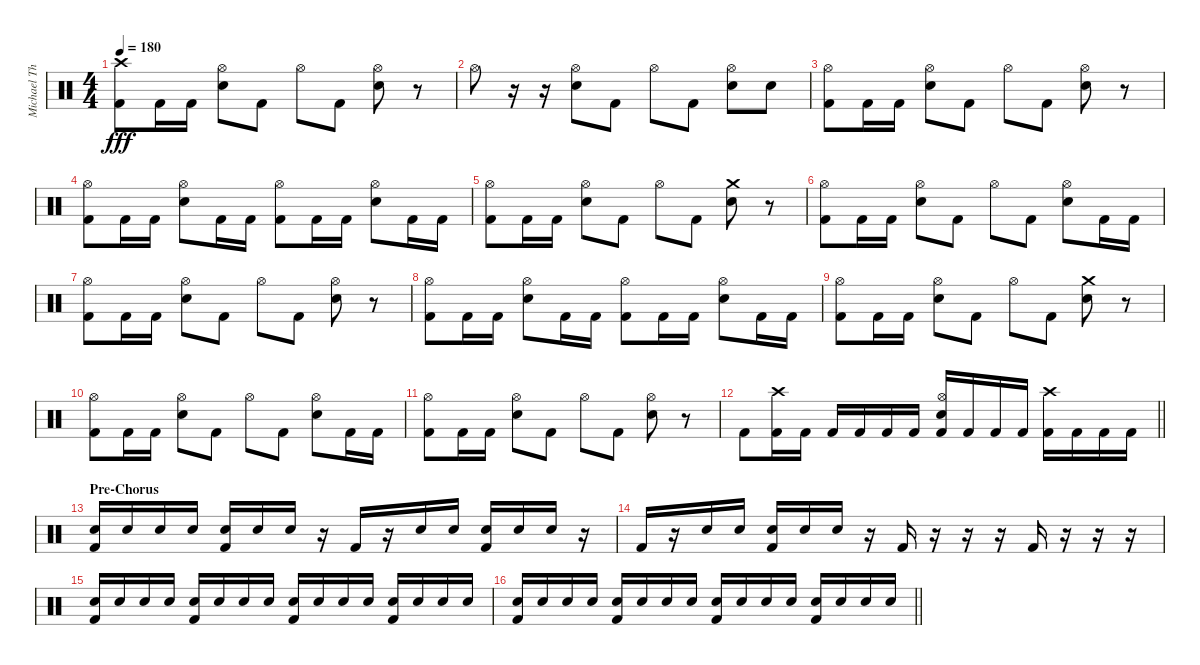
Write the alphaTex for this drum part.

\track ("Michael Thomas" "Michael Th") {instrument percussion}
\staff {score}
\articulation defaults
\ts (4 4)
\tempo 180
\clef neutral
\ks c
("Crash high (hit)" "Kick (hit) 2").8{dy fff} "Kick (hit) 2".16 "Kick (hit) 2".16 ("Hi-Hat (open)" "Electric Snare (hit)").8 "Kick (hit) 2".8 "Hi-Hat (open)".8 "Kick (hit) 2".8 ("Hi-Hat (open)" "Electric Snare (hit)").8 r.8 |
"Hi-Hat (open)".8 r.16 r.16 ("Hi-Hat (open)" "Electric Snare (hit)").8 "Kick (hit) 2".8 "Hi-Hat (open)".8 "Kick (hit) 2".8 ("Hi-Hat (open)" "Electric Snare (hit)").8 "Electric Snare (hit)".8 |
("Hi-Hat (open)" "Kick (hit) 2").8 "Kick (hit) 2".16 "Kick (hit) 2".16 ("Hi-Hat (open)" "Electric Snare (hit)").8 "Kick (hit) 2".8 "Hi-Hat (open)".8 "Kick (hit) 2".8 ("Hi-Hat (open)" "Electric Snare (hit)").8 r.8 |
("Hi-Hat (open)" "Kick (hit) 2").8 "Kick (hit) 2".16 "Kick (hit) 2".16 ("Hi-Hat (open)" "Electric Snare (hit)").8 "Kick (hit) 2".16 "Kick (hit) 2".16 ("Hi-Hat (open)" "Kick (hit) 2").8 "Kick (hit) 2".16 "Kick (hit) 2".16 ("Hi-Hat (open)" "Electric Snare (hit)").8 "Kick (hit) 2".16 "Kick (hit) 2".16 |
("Hi-Hat (open)" "Kick (hit) 2").8 "Kick (hit) 2".16 "Kick (hit) 2".16 ("Hi-Hat (open)" "Electric Snare (hit)").8 "Kick (hit) 2".8 "Hi-Hat (open)".8 "Kick (hit) 2".8 ("Crash medium (hit)" "Electric Snare (hit)").8 r.8 |
("Hi-Hat (open)" "Kick (hit) 2").8 "Kick (hit) 2".16 "Kick (hit) 2".16 ("Hi-Hat (open)" "Electric Snare (hit)").8 "Kick (hit) 2".8 "Hi-Hat (open)".8 "Kick (hit) 2".8 ("Hi-Hat (open)" "Electric Snare (hit)").8 "Kick (hit) 2".16 "Kick (hit) 2".16 |
("Hi-Hat (open)" "Kick (hit) 2").8 "Kick (hit) 2".16 "Kick (hit) 2".16 ("Hi-Hat (open)" "Electric Snare (hit)").8 "Kick (hit) 2".8 "Hi-Hat (open)".8 "Kick (hit) 2".8 ("Hi-Hat (open)" "Electric Snare (hit)").8 r.8 |
("Hi-Hat (open)" "Kick (hit) 2").8 "Kick (hit) 2".16 "Kick (hit) 2".16 ("Hi-Hat (open)" "Electric Snare (hit)").8 "Kick (hit) 2".16 "Kick (hit) 2".16 ("Hi-Hat (open)" "Kick (hit) 2").8 "Kick (hit) 2".16 "Kick (hit) 2".16 ("Hi-Hat (open)" "Electric Snare (hit)").8 "Kick (hit) 2".16 "Kick (hit) 2".16 |
("Hi-Hat (open)" "Kick (hit) 2").8 "Kick (hit) 2".16 "Kick (hit) 2".16 ("Hi-Hat (open)" "Electric Snare (hit)").8 "Kick (hit) 2".8 "Hi-Hat (open)".8 "Kick (hit) 2".8 ("Crash medium (hit)" "Electric Snare (hit)").8 r.8 |
("Hi-Hat (open)" "Kick (hit) 2").8 "Kick (hit) 2".16 "Kick (hit) 2".16 ("Hi-Hat (open)" "Electric Snare (hit)").8 "Kick (hit) 2".8 "Hi-Hat (open)".8 "Kick (hit) 2".8 ("Hi-Hat (open)" "Electric Snare (hit)").8 "Kick (hit) 2".16 "Kick (hit) 2".16 |
("Hi-Hat (open)" "Kick (hit) 2").8 "Kick (hit) 2".16 "Kick (hit) 2".16 ("Hi-Hat (open)" "Electric Snare (hit)").8 "Kick (hit) 2".8 "Hi-Hat (open)".8 "Kick (hit) 2".8 ("Hi-Hat (open)" "Electric Snare (hit)").8 r.8 |
\barLineRight lightlight "Kick (hit) 2".8
("Crash high (hit)" "Kick (hit) 2").16 "Kick (hit) 2".16 "Kick (hit) 2".16 "Kick (hit) 2".16 "Kick (hit) 2".16 "Kick (hit) 2".16 ("Hi-Hat (open)" "Electric Snare (hit)" "Kick (hit) 2").16 "Kick (hit) 2".16 "Kick (hit) 2".16 "Kick (hit) 2".16 ("Crash high (hit)" "Kick (hit) 2").16 "Kick (hit) 2".16 "Kick (hit) 2".16 "Kick (hit) 2".16 |
\section ("" "Pre-Chorus")
("Electric Snare (hit)" "Kick (hit) 2").16 "Electric Snare (hit)".16 "Electric Snare (hit)".16 "Electric Snare (hit)".16 ("Electric Snare (hit)" "Kick (hit) 2").16 "Electric Snare (hit)".16 "Electric Snare (hit)".16 r.16 "Kick (hit) 2".16 r.16 "Electric Snare (hit)".16 "Electric Snare (hit)".16 ("Electric Snare (hit)" "Kick (hit) 2").16 "Electric Snare (hit)".16 "Electric Snare (hit)".16 r.16 |
"Kick (hit) 2".16 r.16 "Electric Snare (hit)".16 "Electric Snare (hit)".16 ("Electric Snare (hit)" "Kick (hit) 2").16 "Electric Snare (hit)".16 "Electric Snare (hit)".16 r.16 "Kick (hit) 2".16 r.16 r.16 r.16 "Kick (hit) 2".16 r.16 r.16 r.16 |
("Electric Snare (hit)" "Kick (hit) 2").16 "Electric Snare (hit)".16 "Electric Snare (hit)".16 "Electric Snare (hit)".16 ("Electric Snare (hit)" "Kick (hit) 2").16 "Electric Snare (hit)".16 "Electric Snare (hit)".16 "Electric Snare (hit)".16 ("Electric Snare (hit)" "Kick (hit) 2").16 "Electric Snare (hit)".16 "Electric Snare (hit)".16 "Electric Snare (hit)".16 ("Electric Snare (hit)" "Kick (hit) 2").16 "Electric Snare (hit)".16 "Electric Snare (hit)".16 "Electric Snare (hit)".16 |
\barLineRight lightlight
("Electric Snare (hit)" "Kick (hit) 2").16 "Electric Snare (hit)".16 "Electric Snare (hit)".16 "Electric Snare (hit)".16 ("Electric Snare (hit)" "Kick (hit) 2").16 "Electric Snare (hit)".16 "Electric Snare (hit)".16 "Electric Snare (hit)".16 ("Electric Snare (hit)" "Kick (hit) 2").16 "Electric Snare (hit)".16 "Electric Snare (hit)".16 "Electric Snare (hit)".16 ("Electric Snare (hit)" "Kick (hit) 2").16 "Electric Snare (hit)".16 "Electric Snare (hit)".16 "Electric Snare (hit)".16
